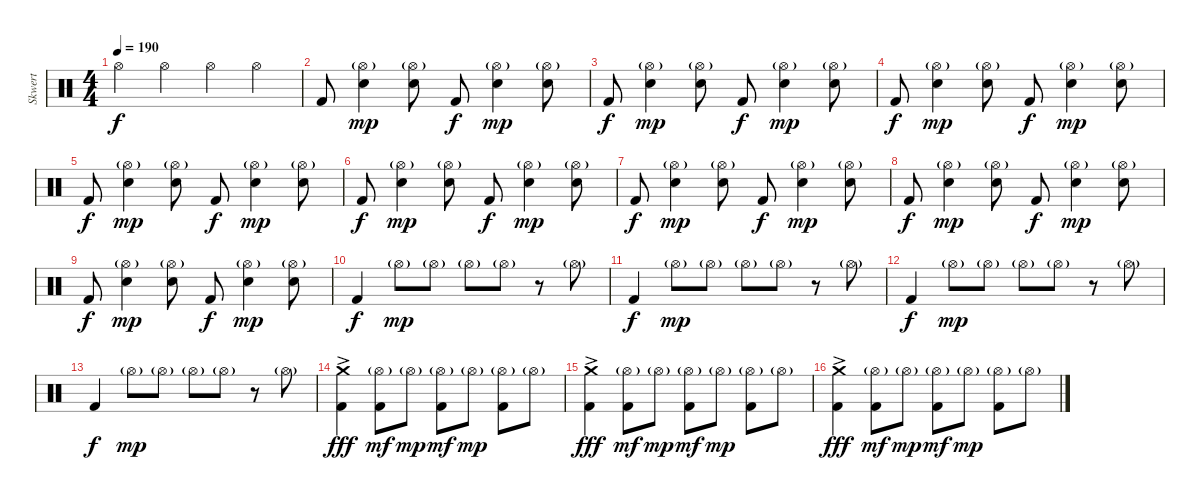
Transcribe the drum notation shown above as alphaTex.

\track ("Skwert" "Skwert") {instrument percussion}
\staff {score}
\articulation defaults
\ts (4 4)
\tempo 190
\clef neutral
\ks c "Hi-Hat (open)".4{dy f} "Hi-Hat (open)".4 "Hi-Hat (open)".4 "Hi-Hat (open)".4
|
"Kick (hit) 2".8 ("Hi-Hat (open)"{g} "Electric Snare (hit)").4{dy mp} ("Hi-Hat (open)"{g} "Electric Snare (hit)").8 "Kick (hit) 2".8{dy f} ("Hi-Hat (open)"{g} "Electric Snare (hit)").4{dy mp} ("Hi-Hat (open)"{g} "Electric Snare (hit)").8 |
"Kick (hit) 2".8{dy f} ("Hi-Hat (open)"{g} "Electric Snare (hit)").4{dy mp} ("Hi-Hat (open)"{g} "Electric Snare (hit)").8 "Kick (hit) 2".8{dy f} ("Hi-Hat (open)"{g} "Electric Snare (hit)").4{dy mp} ("Hi-Hat (open)"{g} "Electric Snare (hit)").8 |
"Kick (hit) 2".8{dy f} ("Hi-Hat (open)"{g} "Electric Snare (hit)").4{dy mp} ("Hi-Hat (open)"{g} "Electric Snare (hit)").8 "Kick (hit) 2".8{dy f} ("Hi-Hat (open)"{g} "Electric Snare (hit)").4{dy mp} ("Hi-Hat (open)"{g} "Electric Snare (hit)").8 |
"Kick (hit) 2".8{dy f} ("Hi-Hat (open)"{g} "Electric Snare (hit)").4{dy mp} ("Hi-Hat (open)"{g} "Electric Snare (hit)").8 "Kick (hit) 2".8{dy f} ("Hi-Hat (open)"{g} "Electric Snare (hit)").4{dy mp} ("Hi-Hat (open)"{g} "Electric Snare (hit)").8 |
"Kick (hit) 2".8{dy f} ("Hi-Hat (open)"{g} "Electric Snare (hit)").4{dy mp} ("Hi-Hat (open)"{g} "Electric Snare (hit)").8 "Kick (hit) 2".8{dy f} ("Hi-Hat (open)"{g} "Electric Snare (hit)").4{dy mp} ("Hi-Hat (open)"{g} "Electric Snare (hit)").8 |
"Kick (hit) 2".8{dy f} ("Hi-Hat (open)"{g} "Electric Snare (hit)").4{dy mp} ("Hi-Hat (open)"{g} "Electric Snare (hit)").8 "Kick (hit) 2".8{dy f} ("Hi-Hat (open)"{g} "Electric Snare (hit)").4{dy mp} ("Hi-Hat (open)"{g} "Electric Snare (hit)").8 |
"Kick (hit) 2".8{dy f} ("Hi-Hat (open)"{g} "Electric Snare (hit)").4{dy mp} ("Hi-Hat (open)"{g} "Electric Snare (hit)").8 "Kick (hit) 2".8{dy f} ("Hi-Hat (open)"{g} "Electric Snare (hit)").4{dy mp} ("Hi-Hat (open)"{g} "Electric Snare (hit)").8 |
"Kick (hit) 2".8{dy f} ("Hi-Hat (open)"{g} "Electric Snare (hit)").4{dy mp} ("Hi-Hat (open)"{g} "Electric Snare (hit)").8 "Kick (hit) 2".8{dy f} ("Hi-Hat (open)"{g} "Electric Snare (hit)").4{dy mp} ("Hi-Hat (open)"{g} "Electric Snare (hit)").8 |
"Kick (hit) 2".4{dy f} "Hi-Hat (open)"{g}.8{dy mp} "Hi-Hat (open)"{g}.8 "Hi-Hat (open)"{g}.8 "Hi-Hat (open)"{g}.8 r.8 "Hi-Hat (open)"{g}.8 |
"Kick (hit) 2".4{dy f} "Hi-Hat (open)"{g}.8{dy mp} "Hi-Hat (open)"{g}.8 "Hi-Hat (open)"{g}.8 "Hi-Hat (open)"{g}.8 r.8 "Hi-Hat (open)"{g}.8 |
"Kick (hit) 2".4{dy f} "Hi-Hat (open)"{g}.8{dy mp} "Hi-Hat (open)"{g}.8 "Hi-Hat (open)"{g}.8 "Hi-Hat (open)"{g}.8 r.8 "Hi-Hat (open)"{g}.8 |
"Kick (hit) 2".4{dy f} "Hi-Hat (open)"{g}.8{dy mp} "Hi-Hat (open)"{g}.8 "Hi-Hat (open)"{g}.8 "Hi-Hat (open)"{g}.8 r.8 "Hi-Hat (open)"{g}.8 |
("Crash medium (hit)" "Kick (hit) 2"{ac}).4{dy fff} ("Hi-Hat (open)"{g} "Kick (hit) 2").8{dy mf} "Hi-Hat (open)"{g}.8{dy mp} ("Hi-Hat (open)"{g} "Kick (hit) 2").8{dy mf} "Hi-Hat (open)"{g}.8{dy mp} ("Hi-Hat (open)"{g} "Kick (hit) 2").8 "Hi-Hat (open)"{g}.8 |
("Crash medium (hit)" "Kick (hit) 2"{ac}).4{dy fff} ("Hi-Hat (open)"{g} "Kick (hit) 2").8{dy mf} "Hi-Hat (open)"{g}.8{dy mp} ("Hi-Hat (open)"{g} "Kick (hit) 2").8{dy mf} "Hi-Hat (open)"{g}.8{dy mp} ("Hi-Hat (open)"{g} "Kick (hit) 2").8 "Hi-Hat (open)"{g}.8 |
("Crash medium (hit)" "Kick (hit) 2"{ac}).4{dy fff} ("Hi-Hat (open)"{g} "Kick (hit) 2").8{dy mf} "Hi-Hat (open)"{g}.8{dy mp} ("Hi-Hat (open)"{g} "Kick (hit) 2").8{dy mf} "Hi-Hat (open)"{g}.8{dy mp} ("Hi-Hat (open)"{g} "Kick (hit) 2").8 "Hi-Hat (open)"{g}.8
